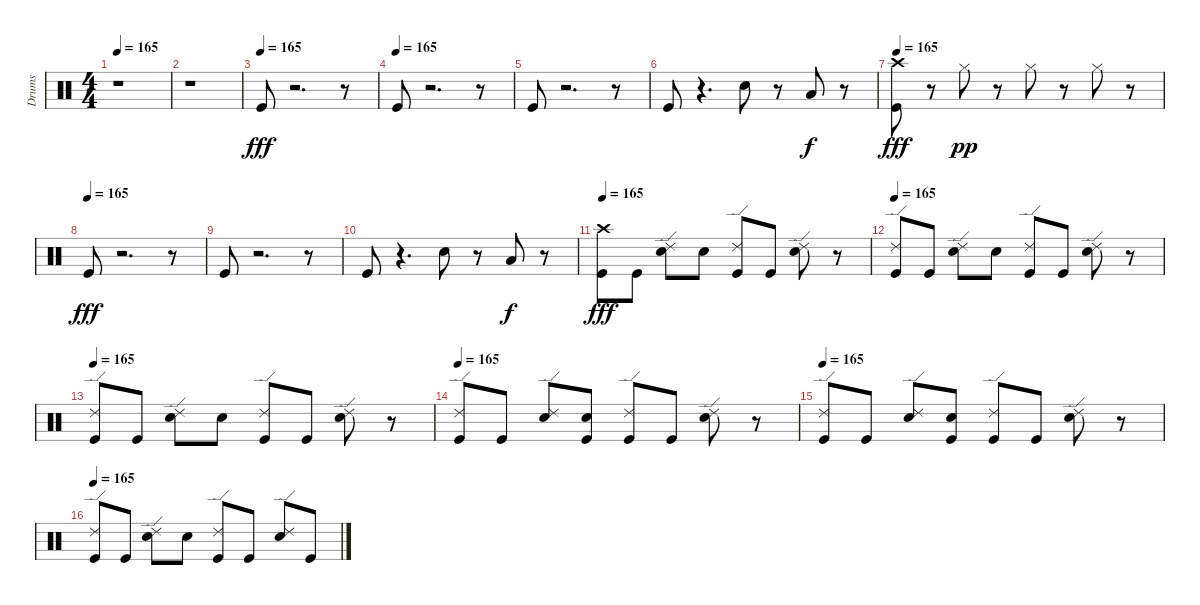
\track ("Drums" "Drums") {instrument percussion}
\staff {score}
\articulation defaults
\ts (4 4)
\tempo 165
\clef neutral
\ks c
r.1{dy fff} |
r.1 |
\tempo (165)
"Kick (hit)".8 r.2{d} r.8 |
\tempo (165)
"Kick (hit)".8 r.2{d} r.8 |
"Kick (hit)".8 r.2{d} r.8 |
"Kick (hit)".8 r.4{d} "Snare (hit) 2".8 r.8 "Low Tom (hit)".8{dy f} r.8 |
\tempo 165
("Crash high (hit)" "Kick (hit)").8{dy fff} r.8 "Hi-Hat (closed)".8{dy pp} r.8 "Hi-Hat (closed)".8 r.8 "Hi-Hat (closed)".8 r.8 |
\tempo (165)
"Kick (hit)".8{dy fff} r.2{d} r.8 |
"Kick (hit)".8 r.2{d} r.8 |
"Kick (hit)".8 r.4{d} "Snare (hit) 2".8 r.8 "Low Tom (hit)".8{dy f} r.8 |
\tempo 165
("Crash high (hit)" "Kick (hit)").8{dy fff} "Kick (hit)".8 ("Ride (edge) 2" "Snare (hit) 2").8 "Snare (hit) 2".8 ("Ride (edge) 2" "Kick (hit)").8 "Kick (hit)".8 ("Ride (edge) 2" "Snare (hit) 2").8 r.8 |
\tempo 165
("Ride (edge) 2" "Kick (hit)").8 "Kick (hit)".8 ("Ride (edge) 2" "Snare (hit) 2").8 "Snare (hit) 2".8 ("Ride (edge) 2" "Kick (hit)").8 "Kick (hit)".8 ("Ride (edge) 2" "Snare (hit) 2").8 r.8 |
\tempo 165
("Ride (edge) 2" "Kick (hit)").8 "Kick (hit)".8 ("Ride (edge) 2" "Snare (hit) 2").8 "Snare (hit) 2".8 ("Ride (edge) 2" "Kick (hit)").8 "Kick (hit)".8 ("Ride (edge) 2" "Snare (hit) 2").8 r.8 |
\tempo 165
("Ride (edge) 2" "Kick (hit)").8 "Kick (hit)".8 ("Ride (edge) 2" "Snare (hit) 2").8 ("Snare (hit) 2" "Kick (hit)").8 ("Ride (edge) 2" "Kick (hit)").8 "Kick (hit)".8 ("Ride (edge) 2" "Snare (hit) 2").8 r.8 |
\tempo 165
("Ride (edge) 2" "Kick (hit)").8 "Kick (hit)".8 ("Ride (edge) 2" "Snare (hit) 2").8 ("Snare (hit) 2" "Kick (hit)").8 ("Ride (edge) 2" "Kick (hit)").8 "Kick (hit)".8 ("Ride (edge) 2" "Snare (hit) 2").8 r.8 |
\tempo 165
("Ride (edge) 2" "Kick (hit)").8 "Kick (hit)".8 ("Ride (edge) 2" "Snare (hit) 2").8 "Snare (hit) 2".8 ("Ride (edge) 2" "Kick (hit)").8 "Kick (hit)".8 ("Ride (edge) 2" "Snare (hit) 2").8 "Kick (hit)".8
